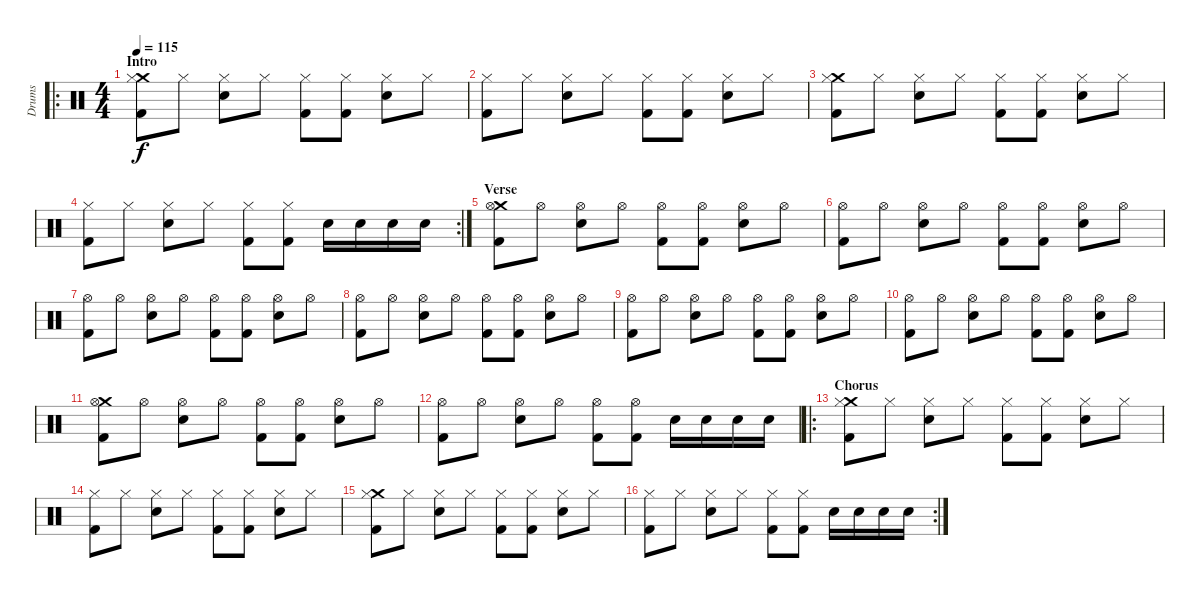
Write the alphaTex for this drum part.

\track ("Drums" "Drums") {instrument percussion}
\staff {score}
\articulation defaults
\ro
\ts (4 4)
\section ("" "Intro")
\tempo 115
\clef neutral
\ks c
("Kick (hit) 2" "Crash medium (hit)" "Hi-Hat (closed)").8{dy f} "Hi-Hat (closed)".8 ("Hi-Hat (closed)" "Electric Snare (hit)").8 "Hi-Hat (closed)".8 ("Kick (hit) 2" "Hi-Hat (closed)").8 ("Kick (hit) 2" "Hi-Hat (closed)").8 ("Hi-Hat (closed)" "Electric Snare (hit)").8 "Hi-Hat (closed)".8 |
("Kick (hit) 2" "Hi-Hat (closed)").8 "Hi-Hat (closed)".8 ("Hi-Hat (closed)" "Electric Snare (hit)").8 "Hi-Hat (closed)".8 ("Kick (hit) 2" "Hi-Hat (closed)").8 ("Kick (hit) 2" "Hi-Hat (closed)").8 ("Hi-Hat (closed)" "Electric Snare (hit)").8 "Hi-Hat (closed)".8 |
("Kick (hit) 2" "Crash medium (hit)" "Hi-Hat (closed)").8 "Hi-Hat (closed)".8 ("Hi-Hat (closed)" "Electric Snare (hit)").8 "Hi-Hat (closed)".8 ("Kick (hit) 2" "Hi-Hat (closed)").8 ("Kick (hit) 2" "Hi-Hat (closed)").8 ("Hi-Hat (closed)" "Electric Snare (hit)").8 "Hi-Hat (closed)".8 |
\rc 2
("Kick (hit) 2" "Hi-Hat (closed)").8 "Hi-Hat (closed)".8 ("Hi-Hat (closed)" "Electric Snare (hit)").8 "Hi-Hat (closed)".8 ("Kick (hit) 2" "Hi-Hat (closed)").8 ("Kick (hit) 2" "Hi-Hat (closed)").8 "Electric Snare (hit)".16 "Electric Snare (hit)".16 "Electric Snare (hit)".16 "Electric Snare (hit)".16 |
\section ("" "Verse")
("Kick (hit) 2" "Crash medium (hit)" "Hi-Hat (open)").8 "Hi-Hat (open)".8 ("Hi-Hat (open)" "Electric Snare (hit)").8 "Hi-Hat (open)".8 ("Kick (hit) 2" "Hi-Hat (open)").8 ("Kick (hit) 2" "Hi-Hat (open)").8 ("Hi-Hat (open)" "Electric Snare (hit)").8 "Hi-Hat (open)".8 |
("Kick (hit) 2" "Hi-Hat (open)").8 "Hi-Hat (open)".8 ("Hi-Hat (open)" "Electric Snare (hit)").8 "Hi-Hat (open)".8 ("Kick (hit) 2" "Hi-Hat (open)").8 ("Kick (hit) 2" "Hi-Hat (open)").8 ("Hi-Hat (open)" "Electric Snare (hit)").8 "Hi-Hat (open)".8 |
("Kick (hit) 2" "Hi-Hat (open)").8 "Hi-Hat (open)".8 ("Hi-Hat (open)" "Electric Snare (hit)").8 "Hi-Hat (open)".8 ("Kick (hit) 2" "Hi-Hat (open)").8 ("Kick (hit) 2" "Hi-Hat (open)").8 ("Hi-Hat (open)" "Electric Snare (hit)").8 "Hi-Hat (open)".8 |
("Kick (hit) 2" "Hi-Hat (open)").8 "Hi-Hat (open)".8 ("Hi-Hat (open)" "Electric Snare (hit)").8 "Hi-Hat (open)".8 ("Kick (hit) 2" "Hi-Hat (open)").8 ("Kick (hit) 2" "Hi-Hat (open)").8 ("Hi-Hat (open)" "Snare (hit) 2").8 "Hi-Hat (open)".8 |
("Kick (hit) 2" "Hi-Hat (open)").8 "Hi-Hat (open)".8 ("Hi-Hat (open)" "Electric Snare (hit)").8 "Hi-Hat (open)".8 ("Kick (hit) 2" "Hi-Hat (open)").8 ("Kick (hit) 2" "Hi-Hat (open)").8 ("Hi-Hat (open)" "Electric Snare (hit)").8 "Hi-Hat (open)".8 |
("Kick (hit) 2" "Hi-Hat (open)").8 "Hi-Hat (open)".8 ("Hi-Hat (open)" "Electric Snare (hit)").8 "Hi-Hat (open)".8 ("Kick (hit) 2" "Hi-Hat (open)").8 ("Kick (hit) 2" "Hi-Hat (open)").8 ("Hi-Hat (open)" "Electric Snare (hit)").8 "Hi-Hat (open)".8 |
("Kick (hit) 2" "Crash medium (hit)" "Hi-Hat (open)").8 "Hi-Hat (open)".8 ("Hi-Hat (open)" "Electric Snare (hit)").8 "Hi-Hat (open)".8 ("Kick (hit) 2" "Hi-Hat (open)").8 ("Kick (hit) 2" "Hi-Hat (open)").8 ("Hi-Hat (open)" "Electric Snare (hit)").8 "Hi-Hat (open)".8 |
("Kick (hit) 2" "Hi-Hat (open)").8 "Hi-Hat (open)".8 ("Hi-Hat (open)" "Electric Snare (hit)").8 "Hi-Hat (open)".8 ("Kick (hit) 2" "Hi-Hat (open)").8 ("Kick (hit) 2" "Hi-Hat (open)").8 "Electric Snare (hit)".16 "Electric Snare (hit)".16 "Electric Snare (hit)".16 "Electric Snare (hit)".16 |
\ro
\section ("" "Chorus")
("Kick (hit) 2" "Crash medium (hit)" "Hi-Hat (closed)").8 "Hi-Hat (closed)".8 ("Hi-Hat (closed)" "Electric Snare (hit)").8 "Hi-Hat (closed)".8 ("Kick (hit) 2" "Hi-Hat (closed)").8 ("Kick (hit) 2" "Hi-Hat (closed)").8 ("Hi-Hat (closed)" "Electric Snare (hit)").8 "Hi-Hat (closed)".8 |
("Kick (hit) 2" "Hi-Hat (closed)").8 "Hi-Hat (closed)".8 ("Hi-Hat (closed)" "Electric Snare (hit)").8 "Hi-Hat (closed)".8 ("Kick (hit) 2" "Hi-Hat (closed)").8 ("Kick (hit) 2" "Hi-Hat (closed)").8 ("Hi-Hat (closed)" "Electric Snare (hit)").8 "Hi-Hat (closed)".8 |
("Kick (hit) 2" "Crash medium (hit)" "Hi-Hat (closed)").8 "Hi-Hat (closed)".8 ("Hi-Hat (closed)" "Electric Snare (hit)").8 "Hi-Hat (closed)".8 ("Kick (hit) 2" "Hi-Hat (closed)").8 ("Kick (hit) 2" "Hi-Hat (closed)").8 ("Hi-Hat (closed)" "Electric Snare (hit)").8 "Hi-Hat (closed)".8 |
\rc 2
("Kick (hit) 2" "Hi-Hat (closed)").8 "Hi-Hat (closed)".8 ("Hi-Hat (closed)" "Electric Snare (hit)").8 "Hi-Hat (closed)".8 ("Kick (hit) 2" "Hi-Hat (closed)").8 ("Kick (hit) 2" "Hi-Hat (closed)").8 "Electric Snare (hit)".16 "Electric Snare (hit)".16 "Electric Snare (hit)".16 "Electric Snare (hit)".16
